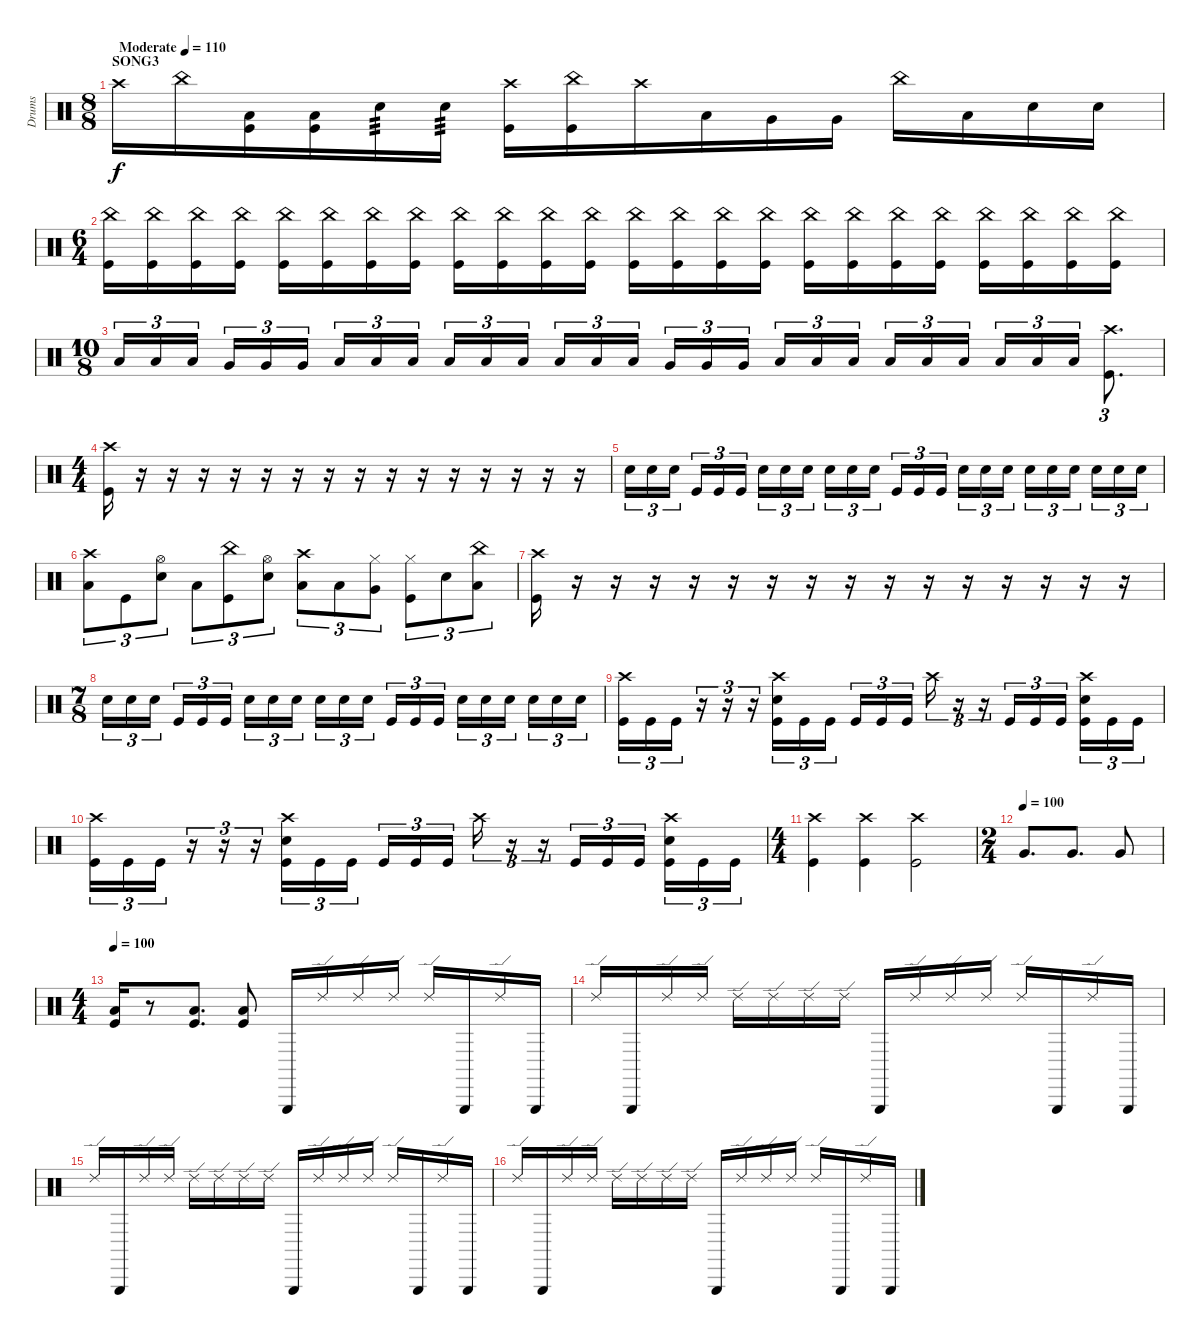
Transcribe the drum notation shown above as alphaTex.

\track ("Drums" "Drums") {instrument percussion}
\staff {score}
\articulation defaults
\ts (8 8)
\section ("" "SONG3")
\tempo (110 "Moderate")
\tempo 120
\tempo (110 "Moderate")
\clef neutral
\ks c "Crash high (hit)".16{dy f} "China (hit)".16
("Low Floor Tom (hit)" "Kick (hit)").16 ("Low Floor Tom (hit)" "Kick (hit)").16 "Electric Snare (hit)".16{tp 3} "Electric Snare (hit)".16{tp 3} ("Crash high (hit)" "Kick (hit)").16 ("China (hit)" "Kick (hit)").16 "Crash high (hit)".16 "Low Floor Tom (hit)".16 "Very Low Tom (hit)".16 "Very Low Tom (hit)".16 "China (hit)".16 "Low Tom (hit)".16 "Electric Snare (hit)".16 "Electric Snare (hit)".16 |
\ts (6 4)
("China (hit)" "Kick (hit)").16 ("China (hit)" "Kick (hit)").16 ("China (hit)" "Kick (hit)").16 ("China (hit)" "Kick (hit)").16 ("China (hit)" "Kick (hit)").16 ("China (hit)" "Kick (hit)").16 ("China (hit)" "Kick (hit)").16 ("China (hit)" "Kick (hit)").16 ("China (hit)" "Kick (hit)").16 ("China (hit)" "Kick (hit)").16 ("China (hit)" "Kick (hit)").16 ("China (hit)" "Kick (hit)").16 ("China (hit)" "Kick (hit)").16 ("China (hit)" "Kick (hit)").16 ("China (hit)" "Kick (hit)").16 ("China (hit)" "Kick (hit)").16 ("China (hit)" "Kick (hit)").16 ("China (hit)" "Kick (hit)").16 ("China (hit)" "Kick (hit)").16 ("China (hit)" "Kick (hit)").16 ("China (hit)" "Kick (hit)").16 ("China (hit)" "Kick (hit)").16 ("China (hit)" "Kick (hit)").16 ("China (hit)" "Kick (hit)").16 |
\ts (10 8)
"Low Tom (hit)".16{tu (3 2)} "Low Tom (hit)".16{tu (3 2)} "Low Tom (hit)".16{tu (3 2)} "Very Low Tom (hit)".16{tu (3 2)} "Very Low Tom (hit)".16{tu (3 2)} "Very Low Tom (hit)".16{tu (3 2)} "Low Tom (hit)".16{tu (3 2)} "Low Tom (hit)".16{tu (3 2)} "Low Tom (hit)".16{tu (3 2)} "Low Floor Tom (hit)".16{tu (3 2)} "Low Floor Tom (hit)".16{tu (3 2)} "Low Floor Tom (hit)".16{tu (3 2)} "Low Tom (hit)".16{tu (3 2)} "Low Tom (hit)".16{tu (3 2)} "Low Tom (hit)".16{tu (3 2)} "Very Low Tom (hit)".16{tu (3 2)} "Very Low Tom (hit)".16{tu (3 2)} "Very Low Tom (hit)".16{tu (3 2)} "Low Tom (hit)".16{tu (3 2)} "Low Tom (hit)".16{tu (3 2)} "Low Tom (hit)".16{tu (3 2)} "Low Floor Tom (hit)".16{tu (3 2)} "Low Floor Tom (hit)".16{tu (3 2)} "Low Floor Tom (hit)".16{tu (3 2)} "Low Floor Tom (hit)".16{tu (3 2)} "Low Floor Tom (hit)".16{tu (3 2)} "Low Floor Tom (hit)".16{tu (3 2)} ("Crash high (hit)" "Kick (hit)").8{d tu (3 2)} |
\ts (4 4)
("Crash high (hit)" "Kick (hit)").16 r.16 r.16 r.16 r.16 r.16 r.16 r.16 r.16 r.16 r.16 r.16 r.16 r.16 r.16 r.16 |
"Electric Snare (hit)".16{tu (3 2)} "Electric Snare (hit)".16{tu (3 2)} "Electric Snare (hit)".16{tu (3 2) beam splitsecondary} "Kick (hit)".16{tu (3 2)} "Kick (hit)".16{tu (3 2)} "Kick (hit)".16{tu (3 2)} "Electric Snare (hit)".16{tu (3 2)} "Electric Snare (hit)".16{tu (3 2)} "Electric Snare (hit)".16{tu (3 2) beam splitsecondary} "Electric Snare (hit)".16{tu (3 2)} "Electric Snare (hit)".16{tu (3 2)} "Electric Snare (hit)".16{tu (3 2)} "Kick (hit)".16{tu (3 2)} "Kick (hit)".16{tu (3 2)} "Kick (hit)".16{tu (3 2) beam splitsecondary} "Electric Snare (hit)".16{tu (3 2)} "Electric Snare (hit)".16{tu (3 2)} "Electric Snare (hit)".16{tu (3 2)} "Electric Snare (hit)".16{tu (3 2)} "Electric Snare (hit)".16{tu (3 2)} "Electric Snare (hit)".16{tu (3 2) beam splitsecondary} "Electric Snare (hit)".16{tu (3 2)} "Electric Snare (hit)".16{tu (3 2)} "Electric Snare (hit)".16{tu (3 2)} |
("Crash high (hit)" "Low Floor Tom (hit)").8{tu (3 2)} "Kick (hit)".8{tu (3 2)} ("Hi-Hat (open)" "Electric Snare (hit)").8{tu (3 2)} "Low Floor Tom (hit)".8{tu (3 2)} ("China (hit)" "Kick (hit)").8{tu (3 2)} ("Hi-Hat (open)" "Electric Snare (hit)").8{tu (3 2)} ("Crash high (hit)" "Low Floor Tom (hit)").8{tu (3 2)} "Low Tom (hit)".8{tu (3 2)} ("Hi-Hat (closed)" "Very Low Tom (hit)").8{tu (3 2)} ("Hi-Hat (closed)" "Kick (hit)").8{tu (3 2)} "Electric Snare (hit)".8{tu (3 2)} ("China (hit)" "Low Tom (hit)").8{tu (3 2)} |
("Crash high (hit)" "Kick (hit)").16 r.16 r.16 r.16 r.16 r.16 r.16 r.16 r.16 r.16 r.16 r.16 r.16 r.16 r.16 r.16 |
\ts (7 8)
"Electric Snare (hit)".16{tu (3 2)} "Electric Snare (hit)".16{tu (3 2)} "Electric Snare (hit)".16{tu (3 2)} "Kick (hit)".16{tu (3 2)} "Kick (hit)".16{tu (3 2)} "Kick (hit)".16{tu (3 2)} "Electric Snare (hit)".16{tu (3 2)} "Electric Snare (hit)".16{tu (3 2)} "Electric Snare (hit)".16{tu (3 2)} "Electric Snare (hit)".16{tu (3 2)} "Electric Snare (hit)".16{tu (3 2)} "Electric Snare (hit)".16{tu (3 2)} "Kick (hit)".16{tu (3 2)} "Kick (hit)".16{tu (3 2)} "Kick (hit)".16{tu (3 2)} "Electric Snare (hit)".16{tu (3 2)} "Electric Snare (hit)".16{tu (3 2)} "Electric Snare (hit)".16{tu (3 2)} "Electric Snare (hit)".16{tu (3 2)} "Electric Snare (hit)".16{tu (3 2)} "Electric Snare (hit)".16{tu (3 2)} |
("Crash high (hit)" "Kick (hit)").16{tu (3 2)} "Kick (hit)".16{tu (3 2)} "Kick (hit)".16{tu (3 2)} r.16{tu (3 2)} r.16{tu (3 2)} r.16{tu (3 2)} ("Crash high (hit)" "Electric Snare (hit)" "Kick (hit)").16{tu (3 2)} "Kick (hit)".16{tu (3 2)} "Kick (hit)".16{tu (3 2)} "Kick (hit)".16{tu (3 2)} "Kick (hit)".16{tu (3 2)} "Kick (hit)".16{tu (3 2)} "Crash high (hit)".16{tu (3 2)} r.16{tu (3 2)} r.16{tu (3 2)} "Kick (hit)".16{tu (3 2)} "Kick (hit)".16{tu (3 2)} "Kick (hit)".16{tu (3 2)} ("Crash high (hit)" "Electric Snare (hit)" "Kick (hit)").16{tu (3 2)} "Kick (hit)".16{tu (3 2)} "Kick (hit)".16{tu (3 2)} |
("Crash high (hit)" "Kick (hit)").16{tu (3 2)} "Kick (hit)".16{tu (3 2)} "Kick (hit)".16{tu (3 2)} r.16{tu (3 2)} r.16{tu (3 2)} r.16{tu (3 2)} ("Crash high (hit)" "Electric Snare (hit)" "Kick (hit)").16{tu (3 2)} "Kick (hit)".16{tu (3 2)} "Kick (hit)".16{tu (3 2)} "Kick (hit)".16{tu (3 2)} "Kick (hit)".16{tu (3 2)} "Kick (hit)".16{tu (3 2)} "Crash high (hit)".16{tu (3 2)} r.16{tu (3 2)} r.16{tu (3 2)} "Kick (hit)".16{tu (3 2)} "Kick (hit)".16{tu (3 2)} "Kick (hit)".16{tu (3 2)} ("Crash high (hit)" "Electric Snare (hit)" "Kick (hit)").16{tu (3 2)} "Kick (hit)".16{tu (3 2)} "Kick (hit)".16{tu (3 2)} |
\ts (4 4)
("Crash high (hit)" "Kick (hit)").4 ("Crash high (hit)" "Kick (hit)").4 ("Crash high (hit)" "Kick (hit)").2 |
\ts (2 4)
\tempo (100)
"Very Low Tom (hit)".8{d} "Very Low Tom (hit)".8{d} "Very Low Tom (hit)".8 |
\ts (4 4)
\tempo 100
("Low Floor Tom (hit)" "Kick (hit)").16 r.8 ("Low Floor Tom (hit)" "Kick (hit)").8{d} ("Low Floor Tom (hit)" "Kick (hit)").8 "Triangle (hit)".16 "Ride (edge) 2".16 "Ride (edge) 2".16 "Ride (edge) 2".16 "Ride (edge) 2".16 "Triangle (hit)".16 "Ride (edge) 2".16 "Triangle (hit)".16 |
"Ride (edge) 2".16 "Triangle (hit)".16 "Ride (edge) 2".16 "Ride (edge) 2".16 "Ride (edge) 2".16 "Ride (edge) 2".16 "Ride (edge) 2".16 "Ride (edge) 2".16 "Triangle (hit)".16 "Ride (edge) 2".16 "Ride (edge) 2".16 "Ride (edge) 2".16 "Ride (edge) 2".16 "Triangle (hit)".16 "Ride (edge) 2".16 "Triangle (hit)".16 |
"Ride (edge) 2".16 "Triangle (hit)".16 "Ride (edge) 2".16 "Ride (edge) 2".16 "Ride (edge) 2".16 "Ride (edge) 2".16 "Ride (edge) 2".16 "Ride (edge) 2".16 "Triangle (hit)".16 "Ride (edge) 2".16 "Ride (edge) 2".16 "Ride (edge) 2".16 "Ride (edge) 2".16 "Triangle (hit)".16 "Ride (edge) 2".16 "Triangle (hit)".16 |
"Ride (edge) 2".16 "Triangle (hit)".16 "Ride (edge) 2".16 "Ride (edge) 2".16 "Ride (edge) 2".16 "Ride (edge) 2".16 "Ride (edge) 2".16 "Ride (edge) 2".16 "Triangle (hit)".16 "Ride (edge) 2".16 "Ride (edge) 2".16 "Ride (edge) 2".16 "Ride (edge) 2".16 "Triangle (hit)".16 "Ride (edge) 2".16 "Triangle (hit)".16
